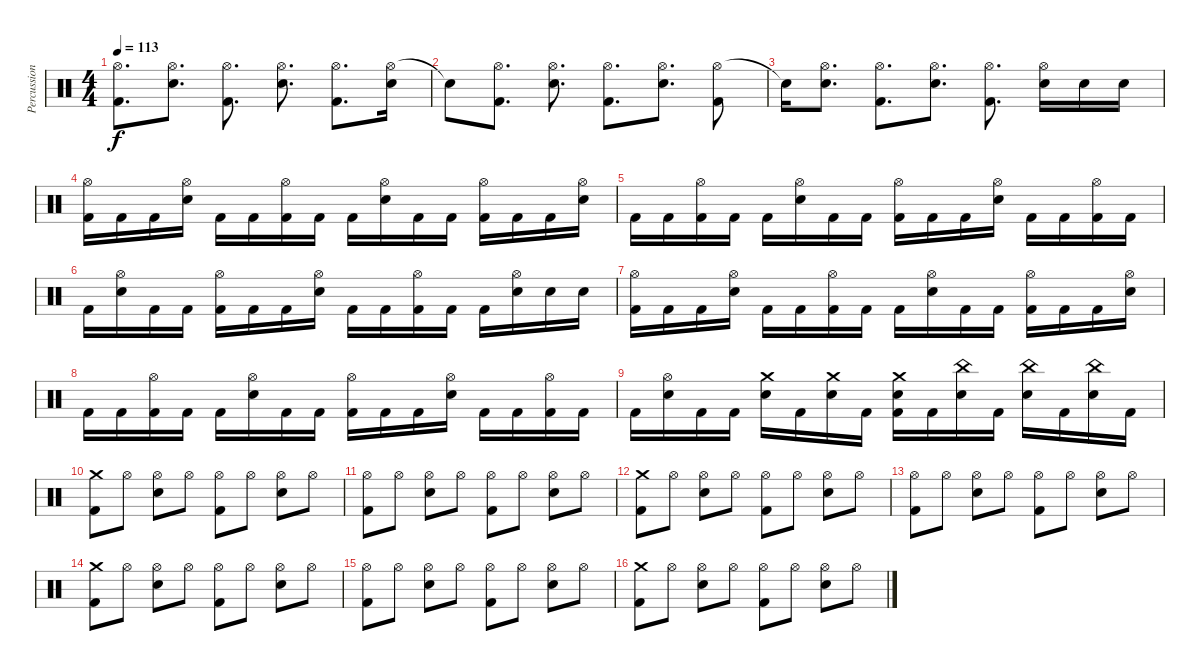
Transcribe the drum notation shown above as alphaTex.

\track ("Percussion" "Percussion") {instrument percussion}
\staff {score}
\articulation defaults
\ts (4 4)
\tempo 113
\clef neutral
\ks c
("Hi-Hat (open)" "Kick (hit) 2").8{d dy f} ("Hi-Hat (open)" "Electric Snare (hit)").8{d} ("Hi-Hat (open)" "Kick (hit) 2").8{d} ("Hi-Hat (open)" "Electric Snare (hit)").8{d} ("Hi-Hat (open)" "Kick (hit) 2").8{d} ("Hi-Hat (open)" "Electric Snare (hit)").16 |
"Snare (hit)"{t}.8 ("Hi-Hat (open)" "Kick (hit) 2").8{d} ("Hi-Hat (open)" "Electric Snare (hit)").8{d} ("Hi-Hat (open)" "Kick (hit) 2").8{d} ("Hi-Hat (open)" "Electric Snare (hit)").8{d} ("Hi-Hat (open)" "Kick (hit) 2").8 |
"Snare (hit)"{t}.16 ("Hi-Hat (open)" "Electric Snare (hit)").8{d} ("Hi-Hat (open)" "Kick (hit) 2").8{d} ("Hi-Hat (open)" "Electric Snare (hit)").8{d} ("Hi-Hat (open)" "Kick (hit) 2").8{d} ("Hi-Hat (open)" "Electric Snare (hit)").16 "Electric Snare (hit)".16 "Electric Snare (hit)".16 |
("Hi-Hat (open)" "Kick (hit) 2").16 "Kick (hit) 2".16 "Kick (hit) 2".16 ("Hi-Hat (open)" "Electric Snare (hit)").16 "Kick (hit) 2".16 "Kick (hit) 2".16 ("Hi-Hat (open)" "Kick (hit) 2").16 "Kick (hit) 2".16 "Kick (hit) 2".16 ("Hi-Hat (open)" "Electric Snare (hit)").16 "Kick (hit) 2".16 "Kick (hit) 2".16 ("Hi-Hat (open)" "Kick (hit) 2").16 "Kick (hit) 2".16 "Kick (hit) 2".16 ("Hi-Hat (open)" "Electric Snare (hit)").16 |
"Kick (hit) 2".16 "Kick (hit) 2".16 ("Hi-Hat (open)" "Kick (hit) 2").16 "Kick (hit) 2".16 "Kick (hit) 2".16 ("Hi-Hat (open)" "Electric Snare (hit)").16 "Kick (hit) 2".16 "Kick (hit) 2".16 ("Hi-Hat (open)" "Kick (hit) 2").16 "Kick (hit) 2".16 "Kick (hit) 2".16 ("Hi-Hat (open)" "Electric Snare (hit)").16 "Kick (hit) 2".16 "Kick (hit) 2".16 ("Hi-Hat (open)" "Kick (hit) 2").16 "Kick (hit) 2".16 |
"Kick (hit) 2".16 ("Hi-Hat (open)" "Electric Snare (hit)").16 "Kick (hit) 2".16 "Kick (hit) 2".16 ("Hi-Hat (open)" "Kick (hit) 2").16 "Kick (hit) 2".16 "Kick (hit) 2".16 ("Hi-Hat (open)" "Electric Snare (hit)").16 "Kick (hit) 2".16 "Kick (hit) 2".16 ("Hi-Hat (open)" "Kick (hit) 2").16 "Kick (hit) 2".16 "Kick (hit) 2".16 ("Hi-Hat (open)" "Electric Snare (hit)").16 "Electric Snare (hit)".16 "Electric Snare (hit)".16 |
("Hi-Hat (open)" "Kick (hit) 2").16 "Kick (hit) 2".16 "Kick (hit) 2".16 ("Hi-Hat (open)" "Electric Snare (hit)").16 "Kick (hit) 2".16 "Kick (hit) 2".16 ("Hi-Hat (open)" "Kick (hit) 2").16 "Kick (hit) 2".16 "Kick (hit) 2".16 ("Hi-Hat (open)" "Electric Snare (hit)").16 "Kick (hit) 2".16 "Kick (hit) 2".16 ("Hi-Hat (open)" "Kick (hit) 2").16 "Kick (hit) 2".16 "Kick (hit) 2".16 ("Hi-Hat (open)" "Electric Snare (hit)").16 |
"Kick (hit) 2".16 "Kick (hit) 2".16 ("Hi-Hat (open)" "Kick (hit) 2").16 "Kick (hit) 2".16 "Kick (hit) 2".16 ("Hi-Hat (open)" "Electric Snare (hit)").16 "Kick (hit) 2".16 "Kick (hit) 2".16 ("Hi-Hat (open)" "Kick (hit) 2").16 "Kick (hit) 2".16 "Kick (hit) 2".16 ("Hi-Hat (open)" "Electric Snare (hit)").16 "Kick (hit) 2".16 "Kick (hit) 2".16 ("Hi-Hat (open)" "Kick (hit) 2").16 "Kick (hit) 2".16 |
"Kick (hit) 2".16 ("Hi-Hat (open)" "Electric Snare (hit)").16 "Kick (hit) 2".16 "Kick (hit) 2".16 ("Crash medium (hit)" "Electric Snare (hit)").16 "Kick (hit) 2".16 ("Crash medium (hit)" "Electric Snare (hit)").16 "Kick (hit) 2".16 ("Crash medium (hit)" "Electric Snare (hit)" "Kick (hit) 2").16 "Kick (hit) 2".16 ("China (hit)" "Electric Snare (hit)").16 "Kick (hit) 2".16 ("China (hit)" "Electric Snare (hit)").16 "Kick (hit) 2".16 ("China (hit)" "Electric Snare (hit)").16 "Kick (hit) 2".16 |
("Crash medium (hit)" "Kick (hit) 2").8 "Hi-Hat (open)".8 ("Hi-Hat (open)" "Electric Snare (hit)").8 "Hi-Hat (open)".8 ("Hi-Hat (open)" "Kick (hit) 2").8 "Hi-Hat (open)".8 ("Hi-Hat (open)" "Electric Snare (hit)").8 "Hi-Hat (open)".8 |
("Hi-Hat (open)" "Kick (hit) 2").8 "Hi-Hat (open)".8 ("Hi-Hat (open)" "Electric Snare (hit)").8 "Hi-Hat (open)".8 ("Hi-Hat (open)" "Kick (hit) 2").8 "Hi-Hat (open)".8 ("Hi-Hat (open)" "Electric Snare (hit)").8 "Hi-Hat (open)".8 |
("Crash medium (hit)" "Kick (hit) 2").8 "Hi-Hat (open)".8 ("Hi-Hat (open)" "Electric Snare (hit)").8 "Hi-Hat (open)".8 ("Hi-Hat (open)" "Kick (hit) 2").8 "Hi-Hat (open)".8 ("Hi-Hat (open)" "Electric Snare (hit)").8 "Hi-Hat (open)".8 |
("Hi-Hat (open)" "Kick (hit) 2").8 "Hi-Hat (open)".8 ("Hi-Hat (open)" "Electric Snare (hit)").8 "Hi-Hat (open)".8 ("Hi-Hat (open)" "Kick (hit) 2").8 "Hi-Hat (open)".8 ("Hi-Hat (open)" "Electric Snare (hit)").8 "Hi-Hat (open)".8 |
("Crash medium (hit)" "Kick (hit) 2").8 "Hi-Hat (open)".8 ("Hi-Hat (open)" "Electric Snare (hit)").8 "Hi-Hat (open)".8 ("Hi-Hat (open)" "Kick (hit) 2").8 "Hi-Hat (open)".8 ("Hi-Hat (open)" "Electric Snare (hit)").8 "Hi-Hat (open)".8 |
("Hi-Hat (open)" "Kick (hit) 2").8 "Hi-Hat (open)".8 ("Hi-Hat (open)" "Electric Snare (hit)").8 "Hi-Hat (open)".8 ("Hi-Hat (open)" "Kick (hit) 2").8 "Hi-Hat (open)".8 ("Hi-Hat (open)" "Electric Snare (hit)").8 "Hi-Hat (open)".8 |
("Crash medium (hit)" "Kick (hit) 2").8 "Hi-Hat (open)".8 ("Hi-Hat (open)" "Electric Snare (hit)").8 "Hi-Hat (open)".8 ("Hi-Hat (open)" "Kick (hit) 2").8 "Hi-Hat (open)".8 ("Hi-Hat (open)" "Electric Snare (hit)").8 "Hi-Hat (open)".8
